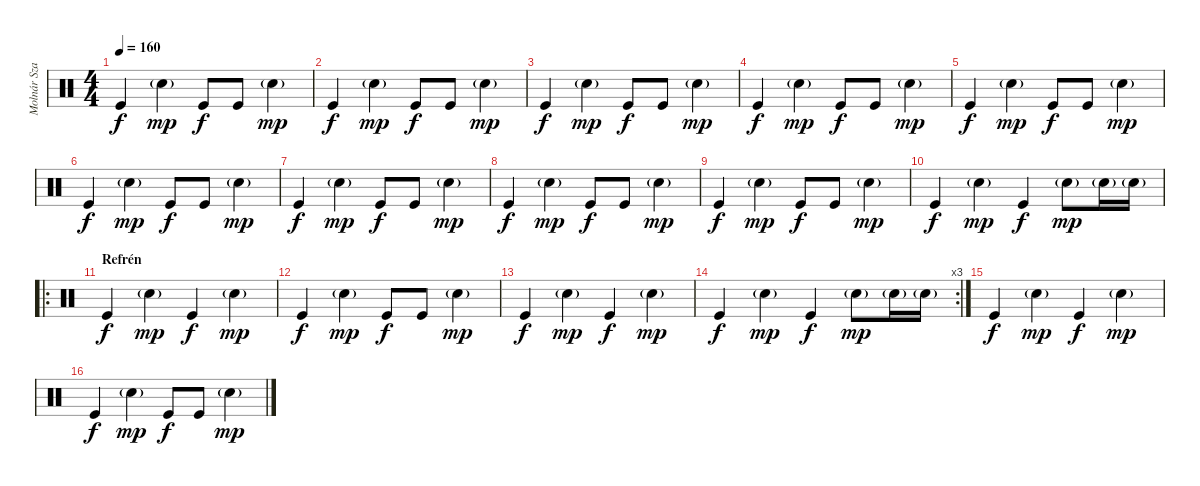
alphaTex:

\track ("Molnár Szabolcs" "Molnár Sza") {instrument percussion}
\staff {score}
\articulation defaults
\ts (4 4)
\tempo 160
\clef neutral
\ks c "Kick (hit)".4{dy f} "Snare (hit) 2"{g}.4{dy mp} "Kick (hit)".8{dy f} "Kick (hit)".8 "Snare (hit) 2"{g}.4{dy mp}
|
"Kick (hit)".4{dy f} "Snare (hit) 2"{g}.4{dy mp} "Kick (hit)".8{dy f} "Kick (hit)".8 "Snare (hit) 2"{g}.4{dy mp} |
"Kick (hit)".4{dy f} "Snare (hit) 2"{g}.4{dy mp} "Kick (hit)".8{dy f} "Kick (hit)".8 "Snare (hit) 2"{g}.4{dy mp} |
"Kick (hit)".4{dy f} "Snare (hit) 2"{g}.4{dy mp} "Kick (hit)".8{dy f} "Kick (hit)".8 "Snare (hit) 2"{g}.4{dy mp} |
"Kick (hit)".4{dy f} "Snare (hit) 2"{g}.4{dy mp} "Kick (hit)".8{dy f} "Kick (hit)".8 "Snare (hit) 2"{g}.4{dy mp} |
"Kick (hit)".4{dy f} "Snare (hit) 2"{g}.4{dy mp} "Kick (hit)".8{dy f} "Kick (hit)".8 "Snare (hit) 2"{g}.4{dy mp} |
"Kick (hit)".4{dy f} "Snare (hit) 2"{g}.4{dy mp} "Kick (hit)".8{dy f} "Kick (hit)".8 "Snare (hit) 2"{g}.4{dy mp} |
"Kick (hit)".4{dy f} "Snare (hit) 2"{g}.4{dy mp} "Kick (hit)".8{dy f} "Kick (hit)".8 "Snare (hit) 2"{g}.4{dy mp} |
"Kick (hit)".4{dy f} "Snare (hit) 2"{g}.4{dy mp} "Kick (hit)".8{dy f} "Kick (hit)".8 "Snare (hit) 2"{g}.4{dy mp} |
"Kick (hit)".4{dy f} "Snare (hit) 2"{g}.4{dy mp} "Kick (hit)".4{dy f} "Snare (hit) 2"{g}.8{dy mp} "Snare (hit) 2"{g}.16 "Snare (hit) 2"{g}.16 |
\ro
\section ("" "Refrén")
"Kick (hit)".4{dy f} "Snare (hit) 2"{g}.4{dy mp} "Kick (hit)".4{dy f} "Snare (hit) 2"{g}.4{dy mp} |
"Kick (hit)".4{dy f} "Snare (hit) 2"{g}.4{dy mp} "Kick (hit)".8{dy f} "Kick (hit)".8 "Snare (hit) 2"{g}.4{dy mp} |
"Kick (hit)".4{dy f} "Snare (hit) 2"{g}.4{dy mp} "Kick (hit)".4{dy f} "Snare (hit) 2"{g}.4{dy mp} |
\rc 3 "Kick (hit)".4{dy f} "Snare (hit) 2"{g}.4{dy mp} "Kick (hit)".4{dy f} "Snare (hit) 2"{g}.8{dy mp} "Snare (hit) 2"{g}.16 "Snare (hit) 2"{g}.16
|
"Kick (hit)".4{dy f} "Snare (hit) 2"{g}.4{dy mp} "Kick (hit)".4{dy f} "Snare (hit) 2"{g}.4{dy mp} |
"Kick (hit)".4{dy f} "Snare (hit) 2"{g}.4{dy mp} "Kick (hit)".8{dy f} "Kick (hit)".8 "Snare (hit) 2"{g}.4{dy mp}
